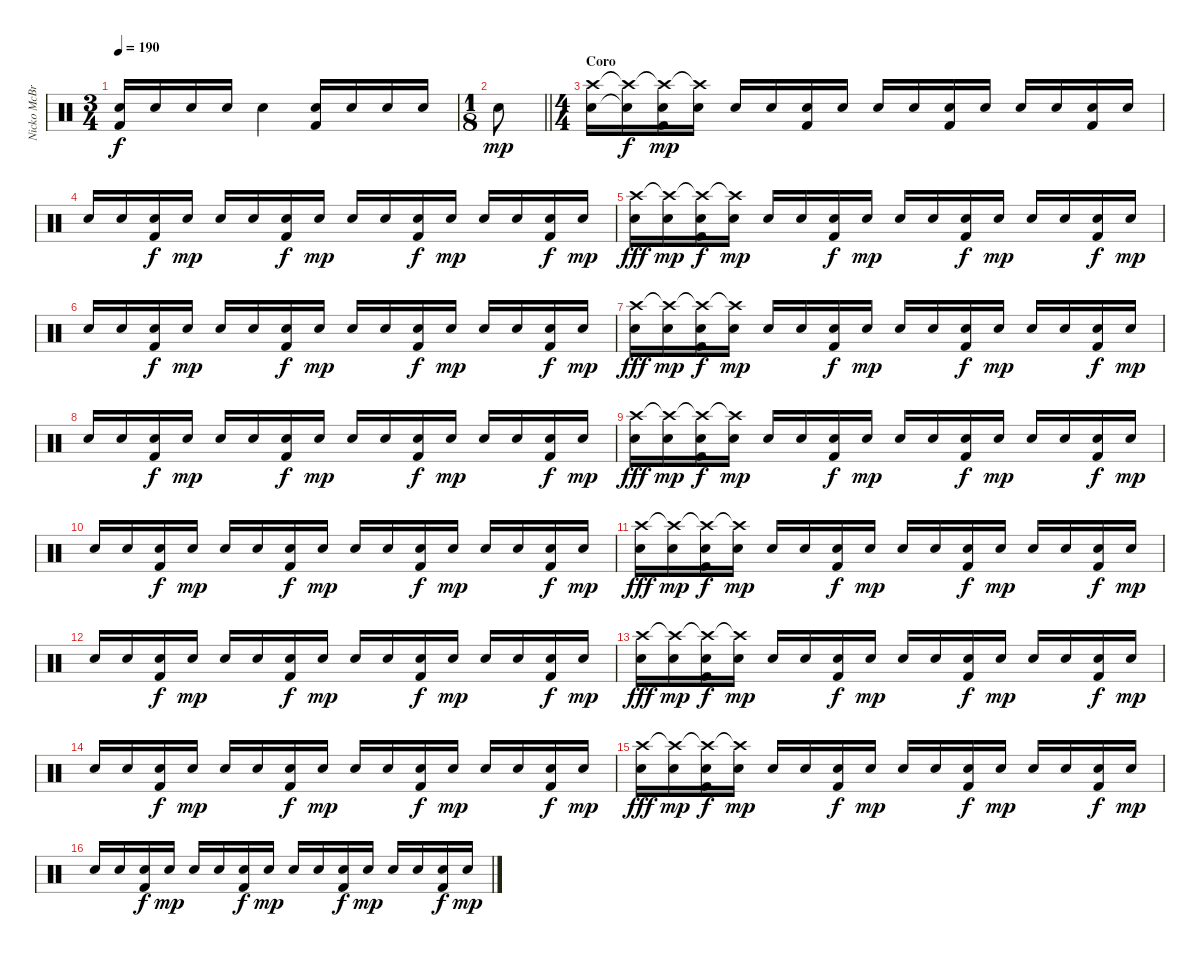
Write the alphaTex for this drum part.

\track ("Nicko McBrain" "Nicko McBr") {instrument percussion}
\staff {score}
\articulation defaults
\ts (3 4)
\tempo 190
\clef neutral
\ks c
("Snare (hit) 2" "Kick (hit) 2").16{dy f} "Snare (hit) 2".16 "Snare (hit) 2".16 "Snare (hit) 2".16 "Snare (hit) 2".4 ("Snare (hit) 2" "Kick (hit) 2").16 "Snare (hit) 2".16 "Snare (hit) 2".16 "Snare (hit) 2".16 |
\ts (1 8)
\barLineRight lightlight "Snare (hit) 2".8{dy mp}
|
\ts (4 4)
\section ("" "Coro")
("Snare (hit) 2" "Crash high (hit)").16 ("Snare (hit) 2"{t} "Crash high (hit)"{t}).16{dy f} ("Snare (hit) 2" "Crash high (hit)"{t} "Kick (hit) 2").16{dy mp} ("Snare (hit) 2" "Crash high (hit)"{t}).16 "Snare (hit) 2".16 "Snare (hit) 2".16 ("Snare (hit) 2" "Kick (hit) 2").16 "Snare (hit) 2".16 "Snare (hit) 2".16 "Snare (hit) 2".16 ("Snare (hit) 2" "Kick (hit) 2").16 "Snare (hit) 2".16 "Snare (hit) 2".16 "Snare (hit) 2".16 ("Snare (hit) 2" "Kick (hit) 2").16 "Snare (hit) 2".16 |
"Snare (hit) 2".16 "Snare (hit) 2".16 ("Snare (hit) 2" "Kick (hit) 2").16{dy f} "Snare (hit) 2".16{dy mp} "Snare (hit) 2".16 "Snare (hit) 2".16 ("Snare (hit) 2" "Kick (hit) 2").16{dy f} "Snare (hit) 2".16{dy mp} "Snare (hit) 2".16 "Snare (hit) 2".16 ("Snare (hit) 2" "Kick (hit) 2").16{dy f} "Snare (hit) 2".16{dy mp} "Snare (hit) 2".16 "Snare (hit) 2".16 ("Snare (hit) 2" "Kick (hit) 2").16{dy f} "Snare (hit) 2".16{dy mp} |
("Snare (hit) 2" "Crash high (hit)").16{dy fff} ("Snare (hit) 2" "Crash high (hit)"{t}).16{dy mp} ("Snare (hit) 2" "Crash high (hit)"{t} "Kick (hit) 2").16{dy f} ("Snare (hit) 2" "Crash high (hit)"{t}).16{dy mp} "Snare (hit) 2".16 "Snare (hit) 2".16 ("Snare (hit) 2" "Kick (hit) 2").16{dy f} "Snare (hit) 2".16{dy mp} "Snare (hit) 2".16 "Snare (hit) 2".16 ("Snare (hit) 2" "Kick (hit) 2").16{dy f} "Snare (hit) 2".16{dy mp} "Snare (hit) 2".16 "Snare (hit) 2".16 ("Snare (hit) 2" "Kick (hit) 2").16{dy f} "Snare (hit) 2".16{dy mp} |
"Snare (hit) 2".16 "Snare (hit) 2".16 ("Snare (hit) 2" "Kick (hit) 2").16{dy f} "Snare (hit) 2".16{dy mp} "Snare (hit) 2".16 "Snare (hit) 2".16 ("Snare (hit) 2" "Kick (hit) 2").16{dy f} "Snare (hit) 2".16{dy mp} "Snare (hit) 2".16 "Snare (hit) 2".16 ("Snare (hit) 2" "Kick (hit) 2").16{dy f} "Snare (hit) 2".16{dy mp} "Snare (hit) 2".16 "Snare (hit) 2".16 ("Snare (hit) 2" "Kick (hit) 2").16{dy f} "Snare (hit) 2".16{dy mp} |
("Snare (hit) 2" "Crash high (hit)").16{dy fff} ("Snare (hit) 2" "Crash high (hit)"{t}).16{dy mp} ("Snare (hit) 2" "Crash high (hit)"{t} "Kick (hit) 2").16{dy f} ("Snare (hit) 2" "Crash high (hit)"{t}).16{dy mp} "Snare (hit) 2".16 "Snare (hit) 2".16 ("Snare (hit) 2" "Kick (hit) 2").16{dy f} "Snare (hit) 2".16{dy mp} "Snare (hit) 2".16 "Snare (hit) 2".16 ("Snare (hit) 2" "Kick (hit) 2").16{dy f} "Snare (hit) 2".16{dy mp} "Snare (hit) 2".16 "Snare (hit) 2".16 ("Snare (hit) 2" "Kick (hit) 2").16{dy f} "Snare (hit) 2".16{dy mp} |
"Snare (hit) 2".16 "Snare (hit) 2".16 ("Snare (hit) 2" "Kick (hit) 2").16{dy f} "Snare (hit) 2".16{dy mp} "Snare (hit) 2".16 "Snare (hit) 2".16 ("Snare (hit) 2" "Kick (hit) 2").16{dy f} "Snare (hit) 2".16{dy mp} "Snare (hit) 2".16 "Snare (hit) 2".16 ("Snare (hit) 2" "Kick (hit) 2").16{dy f} "Snare (hit) 2".16{dy mp} "Snare (hit) 2".16 "Snare (hit) 2".16 ("Snare (hit) 2" "Kick (hit) 2").16{dy f} "Snare (hit) 2".16{dy mp} |
("Snare (hit) 2" "Crash high (hit)").16{dy fff} ("Snare (hit) 2" "Crash high (hit)"{t}).16{dy mp} ("Snare (hit) 2" "Crash high (hit)"{t} "Kick (hit) 2").16{dy f} ("Snare (hit) 2" "Crash high (hit)"{t}).16{dy mp} "Snare (hit) 2".16 "Snare (hit) 2".16 ("Snare (hit) 2" "Kick (hit) 2").16{dy f} "Snare (hit) 2".16{dy mp} "Snare (hit) 2".16 "Snare (hit) 2".16 ("Snare (hit) 2" "Kick (hit) 2").16{dy f} "Snare (hit) 2".16{dy mp} "Snare (hit) 2".16 "Snare (hit) 2".16 ("Snare (hit) 2" "Kick (hit) 2").16{dy f} "Snare (hit) 2".16{dy mp} |
"Snare (hit) 2".16 "Snare (hit) 2".16 ("Snare (hit) 2" "Kick (hit) 2").16{dy f} "Snare (hit) 2".16{dy mp} "Snare (hit) 2".16 "Snare (hit) 2".16 ("Snare (hit) 2" "Kick (hit) 2").16{dy f} "Snare (hit) 2".16{dy mp} "Snare (hit) 2".16 "Snare (hit) 2".16 ("Snare (hit) 2" "Kick (hit) 2").16{dy f} "Snare (hit) 2".16{dy mp} "Snare (hit) 2".16 "Snare (hit) 2".16 ("Snare (hit) 2" "Kick (hit) 2").16{dy f} "Snare (hit) 2".16{dy mp} |
("Snare (hit) 2" "Crash high (hit)").16{dy fff} ("Snare (hit) 2" "Crash high (hit)"{t}).16{dy mp} ("Snare (hit) 2" "Crash high (hit)"{t} "Kick (hit) 2").16{dy f} ("Snare (hit) 2" "Crash high (hit)"{t}).16{dy mp} "Snare (hit) 2".16 "Snare (hit) 2".16 ("Snare (hit) 2" "Kick (hit) 2").16{dy f} "Snare (hit) 2".16{dy mp} "Snare (hit) 2".16 "Snare (hit) 2".16 ("Snare (hit) 2" "Kick (hit) 2").16{dy f} "Snare (hit) 2".16{dy mp} "Snare (hit) 2".16 "Snare (hit) 2".16 ("Snare (hit) 2" "Kick (hit) 2").16{dy f} "Snare (hit) 2".16{dy mp} |
"Snare (hit) 2".16 "Snare (hit) 2".16 ("Snare (hit) 2" "Kick (hit) 2").16{dy f} "Snare (hit) 2".16{dy mp} "Snare (hit) 2".16 "Snare (hit) 2".16 ("Snare (hit) 2" "Kick (hit) 2").16{dy f} "Snare (hit) 2".16{dy mp} "Snare (hit) 2".16 "Snare (hit) 2".16 ("Snare (hit) 2" "Kick (hit) 2").16{dy f} "Snare (hit) 2".16{dy mp} "Snare (hit) 2".16 "Snare (hit) 2".16 ("Snare (hit) 2" "Kick (hit) 2").16{dy f} "Snare (hit) 2".16{dy mp} |
("Snare (hit) 2" "Crash high (hit)").16{dy fff} ("Snare (hit) 2" "Crash high (hit)"{t}).16{dy mp} ("Snare (hit) 2" "Crash high (hit)"{t} "Kick (hit) 2").16{dy f} ("Snare (hit) 2" "Crash high (hit)"{t}).16{dy mp} "Snare (hit) 2".16 "Snare (hit) 2".16 ("Snare (hit) 2" "Kick (hit) 2").16{dy f} "Snare (hit) 2".16{dy mp} "Snare (hit) 2".16 "Snare (hit) 2".16 ("Snare (hit) 2" "Kick (hit) 2").16{dy f} "Snare (hit) 2".16{dy mp} "Snare (hit) 2".16 "Snare (hit) 2".16 ("Snare (hit) 2" "Kick (hit) 2").16{dy f} "Snare (hit) 2".16{dy mp} |
"Snare (hit) 2".16 "Snare (hit) 2".16 ("Snare (hit) 2" "Kick (hit) 2").16{dy f} "Snare (hit) 2".16{dy mp} "Snare (hit) 2".16 "Snare (hit) 2".16 ("Snare (hit) 2" "Kick (hit) 2").16{dy f} "Snare (hit) 2".16{dy mp} "Snare (hit) 2".16 "Snare (hit) 2".16 ("Snare (hit) 2" "Kick (hit) 2").16{dy f} "Snare (hit) 2".16{dy mp} "Snare (hit) 2".16 "Snare (hit) 2".16 ("Snare (hit) 2" "Kick (hit) 2").16{dy f} "Snare (hit) 2".16{dy mp} |
("Snare (hit) 2" "Crash high (hit)").16{dy fff} ("Snare (hit) 2" "Crash high (hit)"{t}).16{dy mp} ("Snare (hit) 2" "Crash high (hit)"{t} "Kick (hit) 2").16{dy f} ("Snare (hit) 2" "Crash high (hit)"{t}).16{dy mp} "Snare (hit) 2".16 "Snare (hit) 2".16 ("Snare (hit) 2" "Kick (hit) 2").16{dy f} "Snare (hit) 2".16{dy mp} "Snare (hit) 2".16 "Snare (hit) 2".16 ("Snare (hit) 2" "Kick (hit) 2").16{dy f} "Snare (hit) 2".16{dy mp} "Snare (hit) 2".16 "Snare (hit) 2".16 ("Snare (hit) 2" "Kick (hit) 2").16{dy f} "Snare (hit) 2".16{dy mp} |
"Snare (hit) 2".16 "Snare (hit) 2".16 ("Snare (hit) 2" "Kick (hit) 2").16{dy f} "Snare (hit) 2".16{dy mp} "Snare (hit) 2".16 "Snare (hit) 2".16 ("Snare (hit) 2" "Kick (hit) 2").16{dy f} "Snare (hit) 2".16{dy mp} "Snare (hit) 2".16 "Snare (hit) 2".16 ("Snare (hit) 2" "Kick (hit) 2").16{dy f} "Snare (hit) 2".16{dy mp} "Snare (hit) 2".16 "Snare (hit) 2".16 ("Snare (hit) 2" "Kick (hit) 2").16{dy f} "Snare (hit) 2".16{dy mp}
